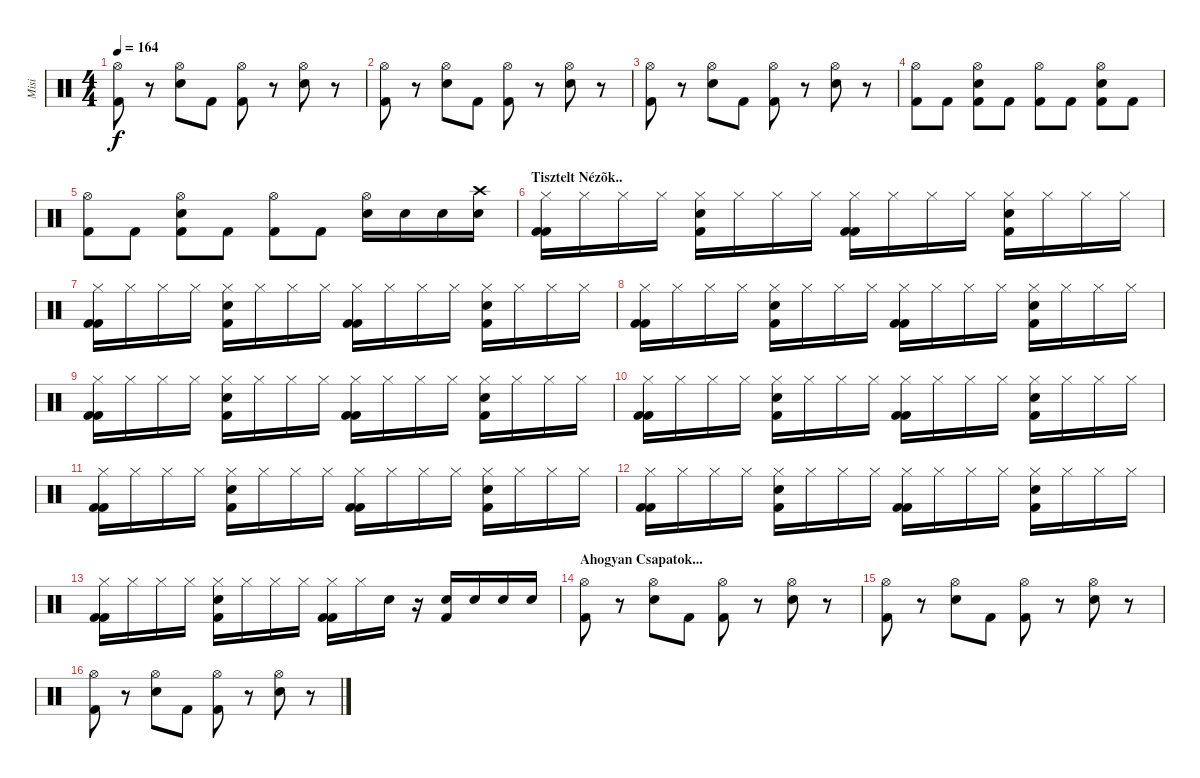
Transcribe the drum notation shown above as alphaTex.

\track ("Misi" "Misi") {instrument percussion}
\staff {score}
\articulation defaults
\ts (4 4)
\tempo 164
\clef neutral
\ks c
("Hi-Hat (open)" "Kick (hit) 2").8{dy f} r.8 ("Hi-Hat (open)" "Electric Snare (hit)").8 "Kick (hit) 2".8 ("Hi-Hat (open)" "Kick (hit) 2").8 r.8 ("Hi-Hat (open)" "Electric Snare (hit)").8 r.8 |
("Hi-Hat (open)" "Kick (hit) 2").8 r.8 ("Hi-Hat (open)" "Electric Snare (hit)").8 "Kick (hit) 2".8 ("Hi-Hat (open)" "Kick (hit) 2").8 r.8 ("Hi-Hat (open)" "Electric Snare (hit)").8 r.8 |
("Hi-Hat (open)" "Kick (hit) 2").8 r.8 ("Hi-Hat (open)" "Electric Snare (hit)").8 "Kick (hit) 2".8 ("Hi-Hat (open)" "Kick (hit) 2").8 r.8 ("Hi-Hat (open)" "Electric Snare (hit)").8 r.8 |
("Hi-Hat (open)" "Kick (hit) 2").8 "Kick (hit) 2".8 ("Hi-Hat (open)" "Electric Snare (hit)" "Kick (hit) 2").8 "Kick (hit) 2".8 ("Hi-Hat (open)" "Kick (hit) 2").8 "Kick (hit) 2".8 ("Hi-Hat (open)" "Electric Snare (hit)" "Kick (hit) 2").8 "Kick (hit) 2".8 |
("Hi-Hat (open)" "Kick (hit) 2").8 "Kick (hit) 2".8 ("Hi-Hat (open)" "Electric Snare (hit)" "Kick (hit) 2").8 "Kick (hit) 2".8 ("Hi-Hat (open)" "Kick (hit) 2").8 "Kick (hit) 2".8 ("Hi-Hat (open)" "Electric Snare (hit)").16 "Electric Snare (hit)".16 "Electric Snare (hit)".16 ("Crash high (hit)" "Electric Snare (hit)").16 |
\section ("" "Tisztelt Nézõk..")
("Hi-Hat (closed)" "Kick (hit) 2" "Kick (hit) 2").16 "Hi-Hat (closed)".16 "Hi-Hat (closed)".16 "Hi-Hat (closed)".16 ("Hi-Hat (closed)" "Electric Snare (hit)" "Kick (hit) 2").16 "Hi-Hat (closed)".16 "Hi-Hat (closed)".16 "Hi-Hat (closed)".16 ("Hi-Hat (closed)" "Kick (hit) 2" "Kick (hit) 2").16 "Hi-Hat (closed)".16 "Hi-Hat (closed)".16 "Hi-Hat (closed)".16 ("Hi-Hat (closed)" "Electric Snare (hit)" "Kick (hit) 2").16 "Hi-Hat (closed)".16 "Hi-Hat (closed)".16 "Hi-Hat (closed)".16 |
("Hi-Hat (closed)" "Kick (hit) 2" "Kick (hit) 2").16 "Hi-Hat (closed)".16 "Hi-Hat (closed)".16 "Hi-Hat (closed)".16 ("Hi-Hat (closed)" "Electric Snare (hit)" "Kick (hit) 2").16 "Hi-Hat (closed)".16 "Hi-Hat (closed)".16 "Hi-Hat (closed)".16 ("Hi-Hat (closed)" "Kick (hit) 2" "Kick (hit) 2").16 "Hi-Hat (closed)".16 "Hi-Hat (closed)".16 "Hi-Hat (closed)".16 ("Hi-Hat (closed)" "Electric Snare (hit)" "Kick (hit) 2").16 "Hi-Hat (closed)".16 "Hi-Hat (closed)".16 "Hi-Hat (closed)".16 |
("Hi-Hat (closed)" "Kick (hit) 2" "Kick (hit) 2").16 "Hi-Hat (closed)".16 "Hi-Hat (closed)".16 "Hi-Hat (closed)".16 ("Hi-Hat (closed)" "Electric Snare (hit)" "Kick (hit) 2").16 "Hi-Hat (closed)".16 "Hi-Hat (closed)".16 "Hi-Hat (closed)".16 ("Hi-Hat (closed)" "Kick (hit) 2" "Kick (hit) 2").16 "Hi-Hat (closed)".16 "Hi-Hat (closed)".16 "Hi-Hat (closed)".16 ("Hi-Hat (closed)" "Electric Snare (hit)" "Kick (hit) 2").16 "Hi-Hat (closed)".16 "Hi-Hat (closed)".16 "Hi-Hat (closed)".16 |
("Hi-Hat (closed)" "Kick (hit) 2" "Kick (hit) 2").16 "Hi-Hat (closed)".16 "Hi-Hat (closed)".16 "Hi-Hat (closed)".16 ("Hi-Hat (closed)" "Electric Snare (hit)" "Kick (hit) 2").16 "Hi-Hat (closed)".16 "Hi-Hat (closed)".16 "Hi-Hat (closed)".16 ("Hi-Hat (closed)" "Kick (hit) 2" "Kick (hit) 2").16 "Hi-Hat (closed)".16 "Hi-Hat (closed)".16 "Hi-Hat (closed)".16 ("Hi-Hat (closed)" "Electric Snare (hit)" "Kick (hit) 2").16 "Hi-Hat (closed)".16 "Hi-Hat (closed)".16 "Hi-Hat (closed)".16 |
("Hi-Hat (closed)" "Kick (hit) 2" "Kick (hit) 2").16 "Hi-Hat (closed)".16 "Hi-Hat (closed)".16 "Hi-Hat (closed)".16 ("Hi-Hat (closed)" "Electric Snare (hit)" "Kick (hit) 2").16 "Hi-Hat (closed)".16 "Hi-Hat (closed)".16 "Hi-Hat (closed)".16 ("Hi-Hat (closed)" "Kick (hit) 2" "Kick (hit) 2").16 "Hi-Hat (closed)".16 "Hi-Hat (closed)".16 "Hi-Hat (closed)".16 ("Hi-Hat (closed)" "Electric Snare (hit)" "Kick (hit) 2").16 "Hi-Hat (closed)".16 "Hi-Hat (closed)".16 "Hi-Hat (closed)".16 |
("Hi-Hat (closed)" "Kick (hit) 2" "Kick (hit) 2").16 "Hi-Hat (closed)".16 "Hi-Hat (closed)".16 "Hi-Hat (closed)".16 ("Hi-Hat (closed)" "Electric Snare (hit)" "Kick (hit) 2").16 "Hi-Hat (closed)".16 "Hi-Hat (closed)".16 "Hi-Hat (closed)".16 ("Hi-Hat (closed)" "Kick (hit) 2" "Kick (hit) 2").16 "Hi-Hat (closed)".16 "Hi-Hat (closed)".16 "Hi-Hat (closed)".16 ("Hi-Hat (closed)" "Electric Snare (hit)" "Kick (hit) 2").16 "Hi-Hat (closed)".16 "Hi-Hat (closed)".16 "Hi-Hat (closed)".16 |
("Hi-Hat (closed)" "Kick (hit) 2" "Kick (hit) 2").16 "Hi-Hat (closed)".16 "Hi-Hat (closed)".16 "Hi-Hat (closed)".16 ("Hi-Hat (closed)" "Electric Snare (hit)" "Kick (hit) 2").16 "Hi-Hat (closed)".16 "Hi-Hat (closed)".16 "Hi-Hat (closed)".16 ("Hi-Hat (closed)" "Kick (hit) 2" "Kick (hit) 2").16 "Hi-Hat (closed)".16 "Hi-Hat (closed)".16 "Hi-Hat (closed)".16 ("Hi-Hat (closed)" "Electric Snare (hit)" "Kick (hit) 2").16 "Hi-Hat (closed)".16 "Hi-Hat (closed)".16 "Hi-Hat (closed)".16 |
("Hi-Hat (closed)" "Kick (hit) 2" "Kick (hit) 2").16 "Hi-Hat (closed)".16 "Hi-Hat (closed)".16 "Hi-Hat (closed)".16 ("Hi-Hat (closed)" "Electric Snare (hit)" "Kick (hit) 2").16 "Hi-Hat (closed)".16 "Hi-Hat (closed)".16 "Hi-Hat (closed)".16 ("Hi-Hat (closed)" "Kick (hit) 2" "Kick (hit) 2").16 "Hi-Hat (closed)".16 "Electric Snare (hit)".16 r.16 ("Electric Snare (hit)" "Kick (hit) 2").16 "Electric Snare (hit)".16 "Electric Snare (hit)".16 "Electric Snare (hit)".16 |
\section ("" "Ahogyan Csapatok...")
("Hi-Hat (open)" "Kick (hit) 2").8 r.8 ("Hi-Hat (open)" "Electric Snare (hit)").8 "Kick (hit) 2".8 ("Hi-Hat (open)" "Kick (hit) 2").8 r.8 ("Hi-Hat (open)" "Electric Snare (hit)").8 r.8 |
("Hi-Hat (open)" "Kick (hit) 2").8 r.8 ("Hi-Hat (open)" "Electric Snare (hit)").8 "Kick (hit) 2".8 ("Hi-Hat (open)" "Kick (hit) 2").8 r.8 ("Hi-Hat (open)" "Electric Snare (hit)").8 r.8 |
("Hi-Hat (open)" "Kick (hit) 2").8 r.8 ("Hi-Hat (open)" "Electric Snare (hit)").8 "Kick (hit) 2".8 ("Hi-Hat (open)" "Kick (hit) 2").8 r.8 ("Hi-Hat (open)" "Electric Snare (hit)").8 r.8
